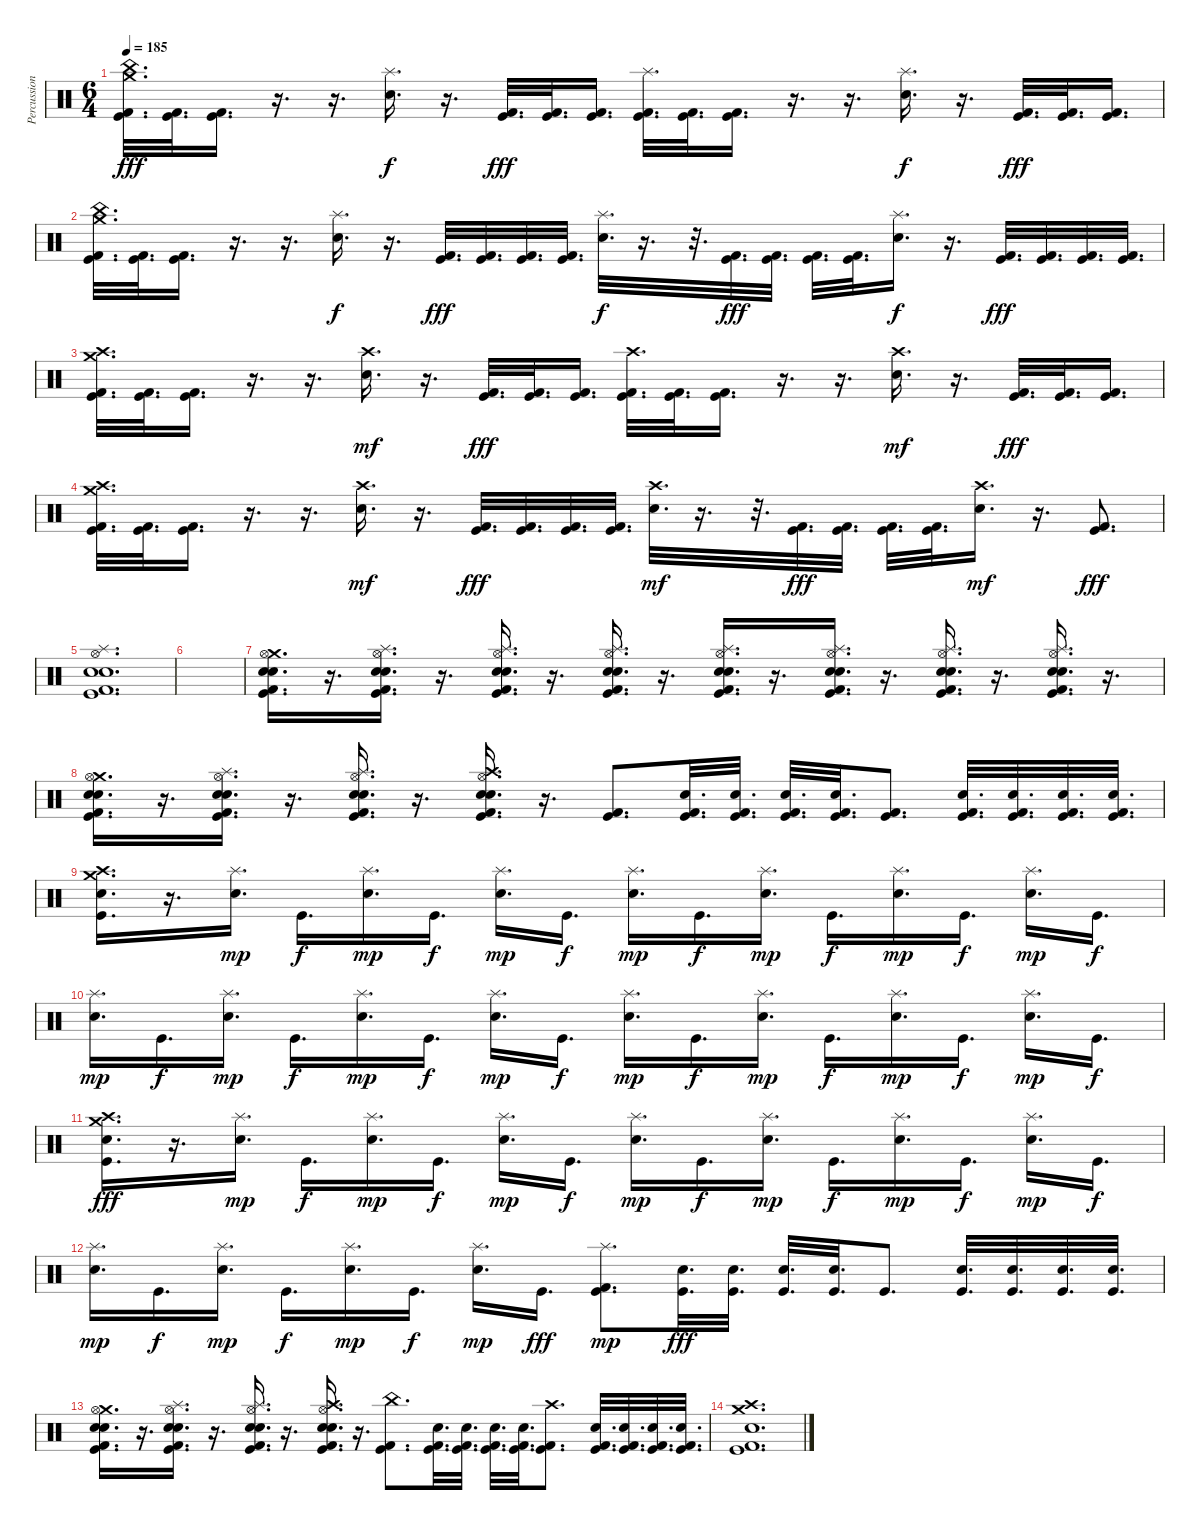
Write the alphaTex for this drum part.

\track ("Percussions" "Percussion") {instrument percussion}
\staff {score}
\articulation defaults
\ts (6 4)
\tempo 185
\clef neutral
\ks c
("China (hit)" "Crash medium (hit)" "Kick (hit)" "Kick (hit) 2").32{d dy fff} ("Kick (hit)" "Kick (hit) 2").32{d} ("Kick (hit)" "Kick (hit) 2").16{d} r.16{d} r.16{d} ("Splash (hit)" "Electric Snare (hit)").16{d dy f} r.16{d} ("Kick (hit)" "Kick (hit) 2").32{d dy fff} ("Kick (hit)" "Kick (hit) 2").32{d} ("Kick (hit)" "Kick (hit) 2").16{d} ("Splash (hit)" "Kick (hit)" "Kick (hit) 2").32{d} ("Kick (hit)" "Kick (hit) 2").32{d} ("Kick (hit)" "Kick (hit) 2").16{d} r.16{d} r.16{d} ("Splash (hit)" "Electric Snare (hit)").16{d dy f} r.16{d} ("Kick (hit)" "Kick (hit) 2").32{d dy fff} ("Kick (hit)" "Kick (hit) 2").32{d} ("Kick (hit)" "Kick (hit) 2").16{d} |
("China (hit)" "Crash medium (hit)" "Kick (hit)" "Kick (hit) 2").32{d} ("Kick (hit)" "Kick (hit) 2").32{d} ("Kick (hit)" "Kick (hit) 2").16{d} r.16{d} r.16{d} ("Splash (hit)" "Electric Snare (hit)").16{d dy f} r.16{d} ("Kick (hit)" "Kick (hit) 2").32{d dy fff} ("Kick (hit)" "Kick (hit) 2").32{d} ("Kick (hit)" "Kick (hit) 2").32{d} ("Kick (hit)" "Kick (hit) 2").32{d} ("Splash (hit)" "Electric Snare (hit)").32{d dy f} r.16{d} r.32{d} ("Kick (hit)" "Kick (hit) 2").32{d dy fff} ("Kick (hit)" "Kick (hit) 2").32{d} ("Kick (hit)" "Kick (hit) 2").32{d} ("Kick (hit)" "Kick (hit) 2").32{d} ("Splash (hit)" "Electric Snare (hit)").16{d dy f} r.16{d} ("Kick (hit)" "Kick (hit) 2").32{d dy fff} ("Kick (hit)" "Kick (hit) 2").32{d} ("Kick (hit)" "Kick (hit) 2").32{d} ("Kick (hit)" "Kick (hit) 2").32{d} |
("Crash high (hit)" "Crash medium (hit)" "Kick (hit)" "Kick (hit) 2").32{d} ("Kick (hit)" "Kick (hit) 2").32{d} ("Kick (hit)" "Kick (hit) 2").16{d} r.16{d} r.16{d} ("Crash high (hit)" "Electric Snare (hit)").16{d dy mf} r.16{d} ("Kick (hit)" "Kick (hit) 2").32{d dy fff} ("Kick (hit)" "Kick (hit) 2").32{d} ("Kick (hit)" "Kick (hit) 2").16{d} ("Crash high (hit)" "Kick (hit)" "Kick (hit) 2").32{d} ("Kick (hit)" "Kick (hit) 2").32{d} ("Kick (hit)" "Kick (hit) 2").16{d} r.16{d} r.16{d} ("Crash high (hit)" "Electric Snare (hit)").16{d dy mf} r.16{d} ("Kick (hit)" "Kick (hit) 2").32{d dy fff} ("Kick (hit)" "Kick (hit) 2").32{d} ("Kick (hit)" "Kick (hit) 2").16{d} |
("Crash high (hit)" "Crash medium (hit)" "Kick (hit)" "Kick (hit) 2").32{d} ("Kick (hit)" "Kick (hit) 2").32{d} ("Kick (hit)" "Kick (hit) 2").16{d} r.16{d} r.16{d} ("Crash high (hit)" "Electric Snare (hit)").16{d dy mf} r.16{d} ("Kick (hit)" "Kick (hit) 2").32{d dy fff} ("Kick (hit)" "Kick (hit) 2").32{d} ("Kick (hit)" "Kick (hit) 2").32{d} ("Kick (hit)" "Kick (hit) 2").32{d} ("Crash high (hit)" "Electric Snare (hit)").32{d dy mf} r.16{d} r.32{d} ("Kick (hit)" "Kick (hit) 2").32{d dy fff} ("Kick (hit)" "Kick (hit) 2").32{d} ("Kick (hit)" "Kick (hit) 2").32{d} ("Kick (hit)" "Kick (hit) 2").32{d} ("Crash high (hit)" "Electric Snare (hit)").16{d dy mf} r.16{d} ("Kick (hit)" "Kick (hit) 2").8{d dy fff} |
("Splash (hit)" "Hi-Hat (open)" "Electric Snare (hit)" "Snare (hit) 2" "Kick (hit)" "Kick (hit) 2").1{d} |
|
("Crash medium (hit)" "Hi-Hat (open)" "Electric Snare (hit)" "Snare (hit) 2" "Kick (hit)" "Kick (hit) 2").16{d} r.16{d} ("Splash (hit)" "Hi-Hat (open)" "Electric Snare (hit)" "Snare (hit) 2" "Kick (hit)" "Kick (hit) 2").16{d} r.16{d} ("Splash (hit)" "Hi-Hat (open)" "Electric Snare (hit)" "Snare (hit) 2" "Kick (hit)" "Kick (hit) 2").16{d} r.16{d} ("Splash (hit)" "Hi-Hat (open)" "Electric Snare (hit)" "Snare (hit) 2" "Kick (hit)" "Kick (hit) 2").16{d} r.16{d} ("Splash (hit)" "Hi-Hat (open)" "Electric Snare (hit)" "Snare (hit) 2" "Kick (hit)" "Kick (hit) 2").16{d} r.16{d} ("Splash (hit)" "Hi-Hat (open)" "Electric Snare (hit)" "Snare (hit) 2" "Kick (hit)" "Kick (hit) 2").16{d} r.16{d} ("Splash (hit)" "Hi-Hat (open)" "Electric Snare (hit)" "Snare (hit) 2" "Kick (hit)" "Kick (hit) 2").16{d} r.16{d} ("Splash (hit)" "Hi-Hat (open)" "Electric Snare (hit)" "Snare (hit) 2" "Kick (hit)" "Kick (hit) 2").16{d} r.16{d} |
("Crash medium (hit)" "Hi-Hat (open)" "Electric Snare (hit)" "Snare (hit) 2" "Kick (hit)" "Kick (hit) 2").16{d} r.16{d} ("Splash (hit)" "Hi-Hat (open)" "Electric Snare (hit)" "Snare (hit) 2" "Kick (hit)" "Kick (hit) 2").16{d} r.16{d} ("Splash (hit)" "Hi-Hat (open)" "Electric Snare (hit)" "Snare (hit) 2" "Kick (hit)" "Kick (hit) 2").16{d} r.16{d} ("Crash high (hit)" "Hi-Hat (open)" "Electric Snare (hit)" "Snare (hit) 2" "Kick (hit)" "Kick (hit) 2").16{d} r.16{d} ("Kick (hit)" "Kick (hit) 2").8{d} ("Electric Snare (hit)" "Kick (hit)" "Kick (hit) 2").32{d} ("Electric Snare (hit)" "Kick (hit)" "Kick (hit) 2").32{d} ("Electric Snare (hit)" "Kick (hit)" "Kick (hit) 2").32{d} ("Electric Snare (hit)" "Kick (hit)" "Kick (hit) 2").32{d} ("Kick (hit)" "Kick (hit) 2").8{d} ("Electric Snare (hit)" "Kick (hit)" "Kick (hit) 2").32{d} ("Electric Snare (hit)" "Kick (hit)" "Kick (hit) 2").32{d} ("Electric Snare (hit)" "Kick (hit)" "Kick (hit) 2").32{d} ("Electric Snare (hit)" "Kick (hit)" "Kick (hit) 2").32{d} |
("Crash high (hit)" "Crash medium (hit)" "Electric Snare (hit)" "Kick (hit)").16{d} r.16{d} ("Splash (hit)" "Electric Snare (hit)").16{d dy mp} "Kick (hit)".16{d dy f} ("Splash (hit)" "Electric Snare (hit)").16{d dy mp} "Kick (hit)".16{d dy f} ("Splash (hit)" "Electric Snare (hit)").16{d dy mp} "Kick (hit)".16{d dy f} ("Splash (hit)" "Electric Snare (hit)").16{d dy mp} "Kick (hit)".16{d dy f} ("Splash (hit)" "Electric Snare (hit)").16{d dy mp} "Kick (hit)".16{d dy f} ("Splash (hit)" "Electric Snare (hit)").16{d dy mp} "Kick (hit)".16{d dy f} ("Splash (hit)" "Electric Snare (hit)").16{d dy mp} "Kick (hit)".16{d dy f} |
("Splash (hit)" "Electric Snare (hit)").16{d dy mp} "Kick (hit)".16{d dy f} ("Splash (hit)" "Electric Snare (hit)").16{d dy mp} "Kick (hit)".16{d dy f} ("Splash (hit)" "Electric Snare (hit)").16{d dy mp} "Kick (hit)".16{d dy f} ("Splash (hit)" "Electric Snare (hit)").16{d dy mp} "Kick (hit)".16{d dy f} ("Splash (hit)" "Electric Snare (hit)").16{d dy mp} "Kick (hit)".16{d dy f} ("Splash (hit)" "Electric Snare (hit)").16{d dy mp} "Kick (hit)".16{d dy f} ("Splash (hit)" "Electric Snare (hit)").16{d dy mp} "Kick (hit)".16{d dy f} ("Splash (hit)" "Electric Snare (hit)").16{d dy mp} "Kick (hit)".16{d dy f} |
("Crash high (hit)" "Crash medium (hit)" "Electric Snare (hit)" "Kick (hit)").16{d dy fff} r.16{d} ("Splash (hit)" "Electric Snare (hit)").16{d dy mp} "Kick (hit)".16{d dy f} ("Splash (hit)" "Electric Snare (hit)").16{d dy mp} "Kick (hit)".16{d dy f} ("Splash (hit)" "Electric Snare (hit)").16{d dy mp} "Kick (hit)".16{d dy f} ("Splash (hit)" "Electric Snare (hit)").16{d dy mp} "Kick (hit)".16{d dy f} ("Splash (hit)" "Electric Snare (hit)").16{d dy mp} "Kick (hit)".16{d dy f} ("Splash (hit)" "Electric Snare (hit)").16{d dy mp} "Kick (hit)".16{d dy f} ("Splash (hit)" "Electric Snare (hit)").16{d dy mp} "Kick (hit)".16{d dy f} |
("Splash (hit)" "Electric Snare (hit)").16{d dy mp} "Kick (hit)".16{d dy f} ("Splash (hit)" "Electric Snare (hit)").16{d dy mp} "Kick (hit)".16{d dy f} ("Splash (hit)" "Electric Snare (hit)").16{d dy mp} "Kick (hit)".16{d dy f} ("Splash (hit)" "Electric Snare (hit)").16{d dy mp} "Kick (hit)".16{d dy fff} ("Splash (hit)" "Kick (hit) 2" "Kick (hit)").8{d dy mp} ("Electric Snare (hit)" "Kick (hit)").32{d dy fff} ("Electric Snare (hit)" "Kick (hit)").32{d} ("Electric Snare (hit)" "Kick (hit)").32{d} ("Electric Snare (hit)" "Kick (hit)").32{d} "Kick (hit)".8{d} ("Electric Snare (hit)" "Kick (hit)").32{d} ("Electric Snare (hit)" "Kick (hit)").32{d} ("Electric Snare (hit)" "Kick (hit)").32{d} ("Electric Snare (hit)" "Kick (hit)").32{d} |
("Crash medium (hit)" "Hi-Hat (open)" "Electric Snare (hit)" "Snare (hit) 2" "Kick (hit)" "Kick (hit) 2").16{d} r.16{d} ("Splash (hit)" "Hi-Hat (open)" "Electric Snare (hit)" "Snare (hit) 2" "Kick (hit)" "Kick (hit) 2").16{d} r.16{d} ("Splash (hit)" "Hi-Hat (open)" "Electric Snare (hit)" "Snare (hit) 2" "Kick (hit)" "Kick (hit) 2").16{d} r.16{d} ("Crash high (hit)" "Hi-Hat (open)" "Electric Snare (hit)" "Snare (hit) 2" "Kick (hit)" "Kick (hit) 2").16{d} r.16{d} ("China (hit)" "Kick (hit)" "Kick (hit) 2").8{d} ("Electric Snare (hit)" "Kick (hit)" "Kick (hit) 2").32{d} ("Electric Snare (hit)" "Kick (hit)" "Kick (hit) 2").32{d} ("Electric Snare (hit)" "Kick (hit)" "Kick (hit) 2").32{d} ("Electric Snare (hit)" "Kick (hit)" "Kick (hit) 2").32{d} ("Crash high (hit)" "Kick (hit)" "Kick (hit) 2").8{d} ("Electric Snare (hit)" "Kick (hit)" "Kick (hit) 2").32{d} ("Electric Snare (hit)" "Kick (hit)" "Kick (hit) 2").32{d} ("Electric Snare (hit)" "Kick (hit)" "Kick (hit) 2").32{d} ("Electric Snare (hit)" "Kick (hit)" "Kick (hit) 2").32{d} |
("Crash high (hit)" "Crash medium (hit)" "Electric Snare (hit)" "Kick (hit)" "Kick (hit) 2").1{d}
